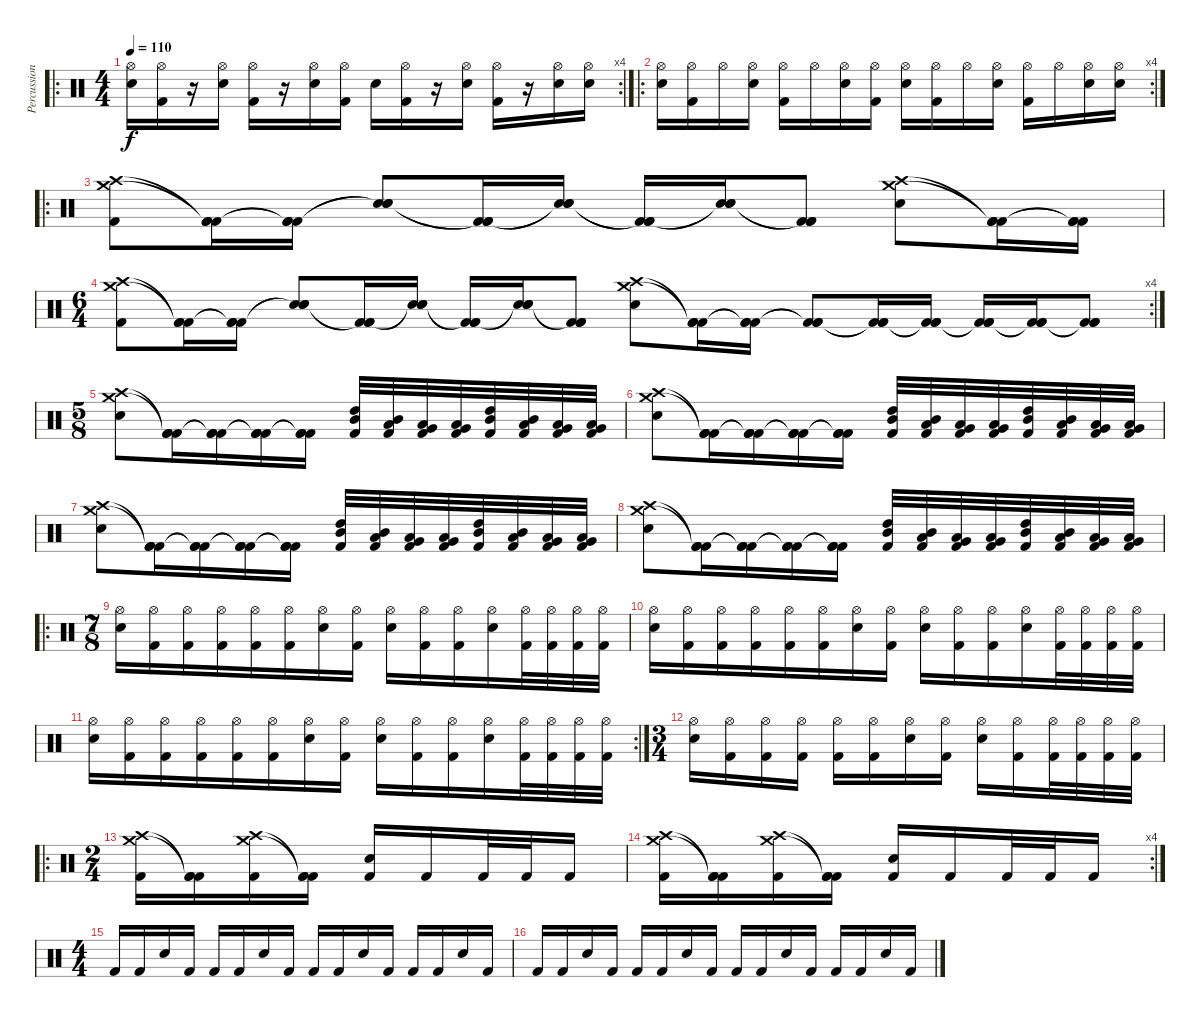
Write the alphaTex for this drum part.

\track ("Percussion" "Percussion") {instrument percussion}
\staff {score}
\articulation defaults
\ro
\rc 4
\ts (4 4)
\tempo 110
\clef neutral
\ks c
("Hi-Hat (open)" "Snare (hit) 2").16{dy f} ("Hi-Hat (open)" "Kick (hit) 2").16 r.16 ("Hi-Hat (open)" "Snare (hit) 2").16 ("Hi-Hat (open)" "Kick (hit) 2").16 r.16 ("Hi-Hat (open)" "Snare (hit) 2").16 ("Hi-Hat (open)" "Kick (hit) 2").16 "Snare (hit) 2".16 ("Hi-Hat (open)" "Kick (hit) 2").16 r.16 ("Hi-Hat (open)" "Snare (hit) 2").16 ("Hi-Hat (open)" "Kick (hit) 2").16 r.16 ("Hi-Hat (open)" "Snare (hit) 2").16 ("Hi-Hat (open)" "Snare (hit) 2").16 |
\ro
\rc 4
("Hi-Hat (open)" "Snare (hit) 2").16 ("Hi-Hat (open)" "Kick (hit) 2").16 "Hi-Hat (open)".16 ("Hi-Hat (open)" "Snare (hit) 2").16 ("Hi-Hat (open)" "Kick (hit) 2").16 "Hi-Hat (open)".16 ("Hi-Hat (open)" "Snare (hit) 2").16 ("Hi-Hat (open)" "Kick (hit) 2").16 ("Hi-Hat (open)" "Snare (hit) 2").16 ("Hi-Hat (open)" "Kick (hit) 2").16 "Hi-Hat (open)".16 ("Hi-Hat (open)" "Snare (hit) 2").16 ("Hi-Hat (open)" "Kick (hit) 2").16 "Hi-Hat (open)".16 ("Hi-Hat (open)" "Snare (hit) 2").16 ("Hi-Hat (open)" "Snare (hit) 2").16 |
\ro
("Crash high (hit)" "Crash medium (hit)" "Kick (hit) 2").8 ("Kick (hit) 2"{t} "Kick (hit) 2"{t} "Kick (hit) 2").16 ("Kick (hit) 2"{t} "Kick (hit) 2"{t} "Kick (hit) 2").16 ("Snare (hit) 2"{t} "Snare (hit) 2"{t} "Snare (hit) 2").8 ("Kick (hit) 2"{t} "Kick (hit) 2"{t} "Kick (hit) 2").16 ("Snare (hit) 2"{t} "Snare (hit) 2"{t} "Snare (hit) 2").16 ("Kick (hit) 2"{t} "Kick (hit) 2"{t} "Kick (hit) 2").16 ("Snare (hit) 2"{t} "Snare (hit) 2"{t} "Snare (hit) 2").16 ("Kick (hit) 2"{t} "Kick (hit) 2"{t} "Kick (hit) 2").8 ("Crash high (hit)" "Crash medium (hit)" "Snare (hit) 2").8 ("Kick (hit) 2"{t} "Kick (hit) 2"{t} "Kick (hit) 2").16 ("Kick (hit) 2"{t} "Kick (hit) 2"{t} "Kick (hit) 2").16 |
\rc 4
\ts (6 4)
("Crash high (hit)" "Crash medium (hit)" "Kick (hit) 2").8 ("Kick (hit) 2"{t} "Kick (hit) 2"{t} "Kick (hit) 2").16 ("Kick (hit) 2"{t} "Kick (hit) 2"{t} "Kick (hit) 2").16 ("Snare (hit) 2"{t} "Snare (hit) 2"{t} "Snare (hit) 2").8 ("Kick (hit) 2"{t} "Kick (hit) 2"{t} "Kick (hit) 2").16 ("Snare (hit) 2"{t} "Snare (hit) 2"{t} "Snare (hit) 2").16 ("Kick (hit) 2"{t} "Kick (hit) 2"{t} "Kick (hit) 2").16 ("Snare (hit) 2"{t} "Snare (hit) 2"{t} "Snare (hit) 2").16 ("Kick (hit) 2"{t} "Kick (hit) 2"{t} "Kick (hit) 2").8 ("Crash high (hit)" "Crash medium (hit)" "Snare (hit) 2").8 ("Kick (hit) 2"{t} "Kick (hit) 2"{t} "Kick (hit) 2").16 ("Kick (hit) 2"{t} "Kick (hit) 2"{t} "Kick (hit) 2").16 ("Kick (hit) 2"{t} "Kick (hit) 2"{t} "Kick (hit) 2").8 ("Kick (hit) 2"{t} "Kick (hit) 2"{t} "Kick (hit) 2").16 ("Kick (hit) 2"{t} "Kick (hit) 2"{t} "Kick (hit) 2").16 ("Kick (hit) 2"{t} "Kick (hit) 2"{t} "Kick (hit) 2").16 ("Kick (hit) 2"{t} "Kick (hit) 2"{t} "Kick (hit) 2").16 ("Kick (hit) 2"{t} "Kick (hit) 2"{t} "Kick (hit) 2").8 |
\ts (5 8)
("Crash high (hit)" "Crash medium (hit)" "Snare (hit) 2").8 ("Kick (hit) 2"{t} "Kick (hit) 2"{t} "Kick (hit) 2").16 ("Kick (hit) 2"{t} "Kick (hit) 2"{t} "Kick (hit) 2").16 ("Kick (hit) 2"{t} "Kick (hit) 2"{t} "Kick (hit) 2").16 ("Kick (hit) 2"{t} "Kick (hit) 2"{t} "Kick (hit) 2").16 ("High Tom (hit)" "Mid Tom (hit)" "Kick (hit) 2").32 ("Mid Tom (hit)" "Low Tom (hit)" "Kick (hit) 2").32 ("Low Tom (hit)" "Very Low Tom (hit)" "Kick (hit) 2").32 ("Very Low Tom (hit)" "Low Floor Tom (hit)" "Kick (hit) 2").32 ("High Tom (hit)" "Mid Tom (hit)" "Kick (hit) 2").32 ("Mid Tom (hit)" "Low Tom (hit)" "Kick (hit) 2").32 ("Low Tom (hit)" "Very Low Tom (hit)" "Kick (hit) 2").32 ("Very Low Tom (hit)" "Low Floor Tom (hit)" "Kick (hit) 2").32 |
("Crash high (hit)" "Crash medium (hit)" "Snare (hit) 2").8 ("Kick (hit) 2"{t} "Kick (hit) 2"{t} "Kick (hit) 2").16 ("Kick (hit) 2"{t} "Kick (hit) 2"{t} "Kick (hit) 2").16 ("Kick (hit) 2"{t} "Kick (hit) 2"{t} "Kick (hit) 2").16 ("Kick (hit) 2"{t} "Kick (hit) 2"{t} "Kick (hit) 2").16 ("High Tom (hit)" "Mid Tom (hit)" "Kick (hit) 2").32 ("Mid Tom (hit)" "Low Tom (hit)" "Kick (hit) 2").32 ("Low Tom (hit)" "Very Low Tom (hit)" "Kick (hit) 2").32 ("Very Low Tom (hit)" "Low Floor Tom (hit)" "Kick (hit) 2").32 ("High Tom (hit)" "Mid Tom (hit)" "Kick (hit) 2").32 ("Mid Tom (hit)" "Low Tom (hit)" "Kick (hit) 2").32 ("Low Tom (hit)" "Very Low Tom (hit)" "Kick (hit) 2").32 ("Very Low Tom (hit)" "Low Floor Tom (hit)" "Kick (hit) 2").32 |
("Crash high (hit)" "Crash medium (hit)" "Snare (hit) 2").8 ("Kick (hit) 2"{t} "Kick (hit) 2"{t} "Kick (hit) 2").16 ("Kick (hit) 2"{t} "Kick (hit) 2"{t} "Kick (hit) 2").16 ("Kick (hit) 2"{t} "Kick (hit) 2"{t} "Kick (hit) 2").16 ("Kick (hit) 2"{t} "Kick (hit) 2"{t} "Kick (hit) 2").16 ("High Tom (hit)" "Mid Tom (hit)" "Kick (hit) 2").32 ("Mid Tom (hit)" "Low Tom (hit)" "Kick (hit) 2").32 ("Low Tom (hit)" "Very Low Tom (hit)" "Kick (hit) 2").32 ("Very Low Tom (hit)" "Low Floor Tom (hit)" "Kick (hit) 2").32 ("High Tom (hit)" "Mid Tom (hit)" "Kick (hit) 2").32 ("Mid Tom (hit)" "Low Tom (hit)" "Kick (hit) 2").32 ("Low Tom (hit)" "Very Low Tom (hit)" "Kick (hit) 2").32 ("Very Low Tom (hit)" "Low Floor Tom (hit)" "Kick (hit) 2").32 |
("Crash high (hit)" "Crash medium (hit)" "Snare (hit) 2").8 ("Kick (hit) 2"{t} "Kick (hit) 2"{t} "Kick (hit) 2").16 ("Kick (hit) 2"{t} "Kick (hit) 2"{t} "Kick (hit) 2").16 ("Kick (hit) 2"{t} "Kick (hit) 2"{t} "Kick (hit) 2").16 ("Kick (hit) 2"{t} "Kick (hit) 2"{t} "Kick (hit) 2").16 ("High Tom (hit)" "Mid Tom (hit)" "Kick (hit) 2").32 ("Mid Tom (hit)" "Low Tom (hit)" "Kick (hit) 2").32 ("Low Tom (hit)" "Very Low Tom (hit)" "Kick (hit) 2").32 ("Very Low Tom (hit)" "Low Floor Tom (hit)" "Kick (hit) 2").32 ("High Tom (hit)" "Mid Tom (hit)" "Kick (hit) 2").32 ("Mid Tom (hit)" "Low Tom (hit)" "Kick (hit) 2").32 ("Low Tom (hit)" "Very Low Tom (hit)" "Kick (hit) 2").32 ("Very Low Tom (hit)" "Low Floor Tom (hit)" "Kick (hit) 2").32 |
\ro
\ts (7 8)
("Hi-Hat (open)" "Snare (hit) 2").16 ("Hi-Hat (open)" "Kick (hit) 2").16 ("Hi-Hat (open)" "Kick (hit) 2").16 ("Hi-Hat (open)" "Kick (hit) 2").16 ("Hi-Hat (open)" "Kick (hit) 2").16 ("Hi-Hat (open)" "Kick (hit) 2").16 ("Hi-Hat (open)" "Snare (hit) 2").16 ("Hi-Hat (open)" "Kick (hit) 2").16 ("Hi-Hat (open)" "Snare (hit) 2").16 ("Hi-Hat (open)" "Kick (hit) 2").16 ("Hi-Hat (open)" "Kick (hit) 2").16 ("Hi-Hat (open)" "Snare (hit) 2").16 ("Hi-Hat (open)" "Kick (hit) 2").32 ("Hi-Hat (open)" "Kick (hit) 2").32 ("Hi-Hat (open)" "Kick (hit) 2").32 ("Hi-Hat (open)" "Kick (hit) 2").32 |
("Hi-Hat (open)" "Snare (hit) 2").16 ("Hi-Hat (open)" "Kick (hit) 2").16 ("Hi-Hat (open)" "Kick (hit) 2").16 ("Hi-Hat (open)" "Kick (hit) 2").16 ("Hi-Hat (open)" "Kick (hit) 2").16 ("Hi-Hat (open)" "Kick (hit) 2").16 ("Hi-Hat (open)" "Snare (hit) 2").16 ("Hi-Hat (open)" "Kick (hit) 2").16 ("Hi-Hat (open)" "Snare (hit) 2").16 ("Hi-Hat (open)" "Kick (hit) 2").16 ("Hi-Hat (open)" "Kick (hit) 2").16 ("Hi-Hat (open)" "Snare (hit) 2").16 ("Hi-Hat (open)" "Kick (hit) 2").32 ("Hi-Hat (open)" "Kick (hit) 2").32 ("Hi-Hat (open)" "Kick (hit) 2").32 ("Hi-Hat (open)" "Kick (hit) 2").32 |
\rc 2
("Hi-Hat (open)" "Snare (hit) 2").16 ("Hi-Hat (open)" "Kick (hit) 2").16 ("Hi-Hat (open)" "Kick (hit) 2").16 ("Hi-Hat (open)" "Kick (hit) 2").16 ("Hi-Hat (open)" "Kick (hit) 2").16 ("Hi-Hat (open)" "Kick (hit) 2").16 ("Hi-Hat (open)" "Snare (hit) 2").16 ("Hi-Hat (open)" "Kick (hit) 2").16 ("Hi-Hat (open)" "Snare (hit) 2").16 ("Hi-Hat (open)" "Kick (hit) 2").16 ("Hi-Hat (open)" "Kick (hit) 2").16 ("Hi-Hat (open)" "Snare (hit) 2").16 ("Hi-Hat (open)" "Kick (hit) 2").32 ("Hi-Hat (open)" "Kick (hit) 2").32 ("Hi-Hat (open)" "Kick (hit) 2").32 ("Hi-Hat (open)" "Kick (hit) 2").32 |
\ts (3 4)
("Hi-Hat (open)" "Snare (hit) 2").16 ("Hi-Hat (open)" "Kick (hit) 2").16 ("Hi-Hat (open)" "Kick (hit) 2").16 ("Hi-Hat (open)" "Kick (hit) 2").16 ("Hi-Hat (open)" "Kick (hit) 2").16 ("Hi-Hat (open)" "Kick (hit) 2").16 ("Hi-Hat (open)" "Snare (hit) 2").16 ("Hi-Hat (open)" "Kick (hit) 2").16 ("Hi-Hat (open)" "Snare (hit) 2").16 ("Hi-Hat (open)" "Kick (hit) 2").16 ("Hi-Hat (open)" "Kick (hit) 2").32 ("Hi-Hat (open)" "Kick (hit) 2").32 ("Hi-Hat (open)" "Kick (hit) 2").32 ("Hi-Hat (open)" "Kick (hit) 2").32 |
\ro
\ts (2 4)
("Crash high (hit)" "Crash medium (hit)" "Kick (hit) 2").16 ("Kick (hit) 2"{t} "Kick (hit) 2"{t} "Kick (hit) 2").16 ("Crash high (hit)" "Crash medium (hit)" "Kick (hit) 2").16 ("Kick (hit) 2"{t} "Kick (hit) 2"{t} "Kick (hit) 2").16 ("Snare (hit) 2" "Kick (hit) 2").16 "Kick (hit) 2".16 "Kick (hit) 2".32 "Kick (hit) 2".32 "Kick (hit) 2".16 |
\rc 4
("Crash high (hit)" "Crash medium (hit)" "Kick (hit) 2").16 ("Kick (hit) 2"{t} "Kick (hit) 2"{t} "Kick (hit) 2").16 ("Crash high (hit)" "Crash medium (hit)" "Kick (hit) 2").16 ("Kick (hit) 2"{t} "Kick (hit) 2"{t} "Kick (hit) 2").16 ("Snare (hit) 2" "Kick (hit) 2").16 "Kick (hit) 2".16 "Kick (hit) 2".32 "Kick (hit) 2".32 "Kick (hit) 2".16 |
\ts (4 4)
"Kick (hit) 2".16 "Kick (hit) 2".16 "Snare (hit) 2".16 "Kick (hit) 2".16 "Kick (hit) 2".16 "Kick (hit) 2".16 "Snare (hit) 2".16 "Kick (hit) 2".16 "Kick (hit) 2".16 "Kick (hit) 2".16 "Snare (hit) 2".16 "Kick (hit) 2".16 "Kick (hit) 2".16 "Kick (hit) 2".16 "Snare (hit) 2".16 "Kick (hit) 2".16 |
"Kick (hit) 2".16 "Kick (hit) 2".16 "Snare (hit) 2".16 "Kick (hit) 2".16 "Kick (hit) 2".16 "Kick (hit) 2".16 "Snare (hit) 2".16 "Kick (hit) 2".16 "Kick (hit) 2".16 "Kick (hit) 2".16 "Snare (hit) 2".16 "Kick (hit) 2".16 "Kick (hit) 2".16 "Kick (hit) 2".16 "Snare (hit) 2".16 "Kick (hit) 2".16
